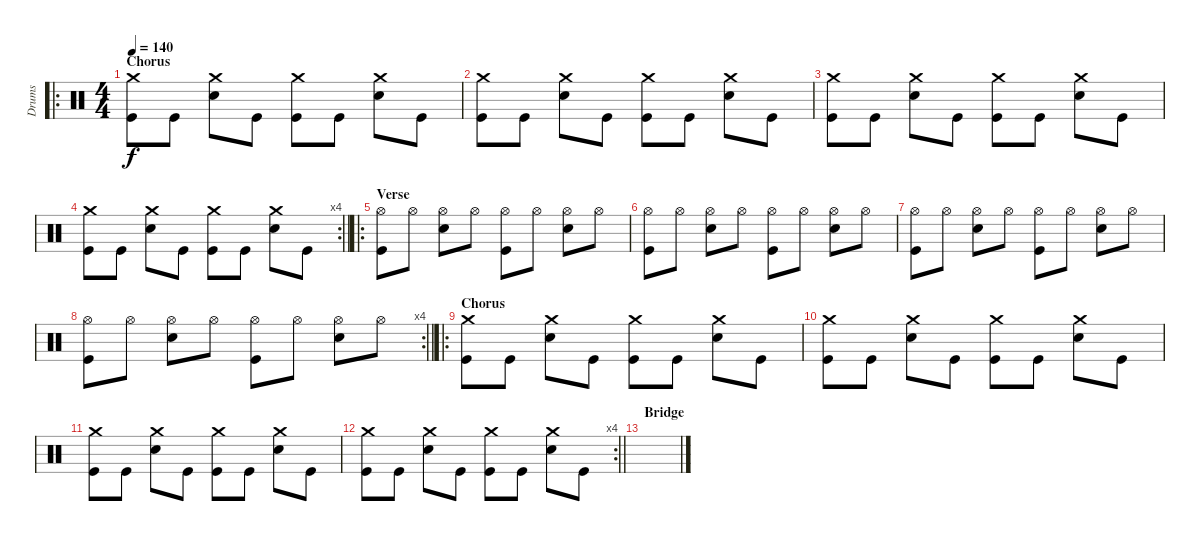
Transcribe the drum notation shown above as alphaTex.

\track ("Drums" "Drums") {instrument percussion}
\staff {score}
\articulation defaults
\ro
\ts (4 4)
\section ("" "Chorus")
\tempo 140
\clef neutral
\ks c
("Crash medium (hit)" "Kick (hit)").8{dy f} "Kick (hit)".8 ("Crash medium (hit)" "Snare (hit) 2").8 "Kick (hit)".8 ("Crash medium (hit)" "Kick (hit)").8 "Kick (hit)".8 ("Crash medium (hit)" "Snare (hit) 2").8 "Kick (hit)".8 |
("Crash medium (hit)" "Kick (hit)").8 "Kick (hit)".8 ("Crash medium (hit)" "Snare (hit) 2").8 "Kick (hit)".8 ("Crash medium (hit)" "Kick (hit)").8 "Kick (hit)".8 ("Crash medium (hit)" "Snare (hit) 2").8 "Kick (hit)".8 |
("Crash medium (hit)" "Kick (hit)").8 "Kick (hit)".8 ("Crash medium (hit)" "Snare (hit) 2").8 "Kick (hit)".8 ("Crash medium (hit)" "Kick (hit)").8 "Kick (hit)".8 ("Crash medium (hit)" "Snare (hit) 2").8 "Kick (hit)".8 |
\rc 4
\barLineRight lightlight
("Crash medium (hit)" "Kick (hit)").8 "Kick (hit)".8 ("Crash medium (hit)" "Snare (hit) 2").8 "Kick (hit)".8 ("Crash medium (hit)" "Kick (hit)").8 "Kick (hit)".8 ("Crash medium (hit)" "Snare (hit) 2").8 "Kick (hit)".8 |
\ro
\section ("" "Verse")
("Hi-Hat (open)" "Kick (hit)").8 "Hi-Hat (open)".8 ("Hi-Hat (open)" "Snare (hit) 2").8 "Hi-Hat (open)".8 ("Hi-Hat (open)" "Kick (hit)").8 "Hi-Hat (open)".8 ("Hi-Hat (open)" "Snare (hit) 2").8 "Hi-Hat (open)".8 |
("Hi-Hat (open)" "Kick (hit)").8 "Hi-Hat (open)".8 ("Hi-Hat (open)" "Snare (hit) 2").8 "Hi-Hat (open)".8 ("Hi-Hat (open)" "Kick (hit)").8 "Hi-Hat (open)".8 ("Hi-Hat (open)" "Snare (hit) 2").8 "Hi-Hat (open)".8 |
("Hi-Hat (open)" "Kick (hit)").8 "Hi-Hat (open)".8 ("Hi-Hat (open)" "Snare (hit) 2").8 "Hi-Hat (open)".8 ("Hi-Hat (open)" "Kick (hit)").8 "Hi-Hat (open)".8 ("Hi-Hat (open)" "Snare (hit) 2").8 "Hi-Hat (open)".8 |
\rc 4
\barLineRight lightlight
("Hi-Hat (open)" "Kick (hit)").8 "Hi-Hat (open)".8 ("Hi-Hat (open)" "Snare (hit) 2").8 "Hi-Hat (open)".8 ("Hi-Hat (open)" "Kick (hit)").8 "Hi-Hat (open)".8 ("Hi-Hat (open)" "Snare (hit) 2").8 "Hi-Hat (open)".8 |
\ro
\section ("" "Chorus")
("Crash medium (hit)" "Kick (hit)").8 "Kick (hit)".8 ("Crash medium (hit)" "Snare (hit) 2").8 "Kick (hit)".8 ("Crash medium (hit)" "Kick (hit)").8 "Kick (hit)".8 ("Crash medium (hit)" "Snare (hit) 2").8 "Kick (hit)".8 |
("Crash medium (hit)" "Kick (hit)").8 "Kick (hit)".8 ("Crash medium (hit)" "Snare (hit) 2").8 "Kick (hit)".8 ("Crash medium (hit)" "Kick (hit)").8 "Kick (hit)".8 ("Crash medium (hit)" "Snare (hit) 2").8 "Kick (hit)".8 |
("Crash medium (hit)" "Kick (hit)").8 "Kick (hit)".8 ("Crash medium (hit)" "Snare (hit) 2").8 "Kick (hit)".8 ("Crash medium (hit)" "Kick (hit)").8 "Kick (hit)".8 ("Crash medium (hit)" "Snare (hit) 2").8 "Kick (hit)".8 |
\rc 4
\barLineRight lightlight
("Crash medium (hit)" "Kick (hit)").8 "Kick (hit)".8 ("Crash medium (hit)" "Snare (hit) 2").8 "Kick (hit)".8 ("Crash medium (hit)" "Kick (hit)").8 "Kick (hit)".8 ("Crash medium (hit)" "Snare (hit) 2").8 "Kick (hit)".8 |
\section ("" "Bridge")
